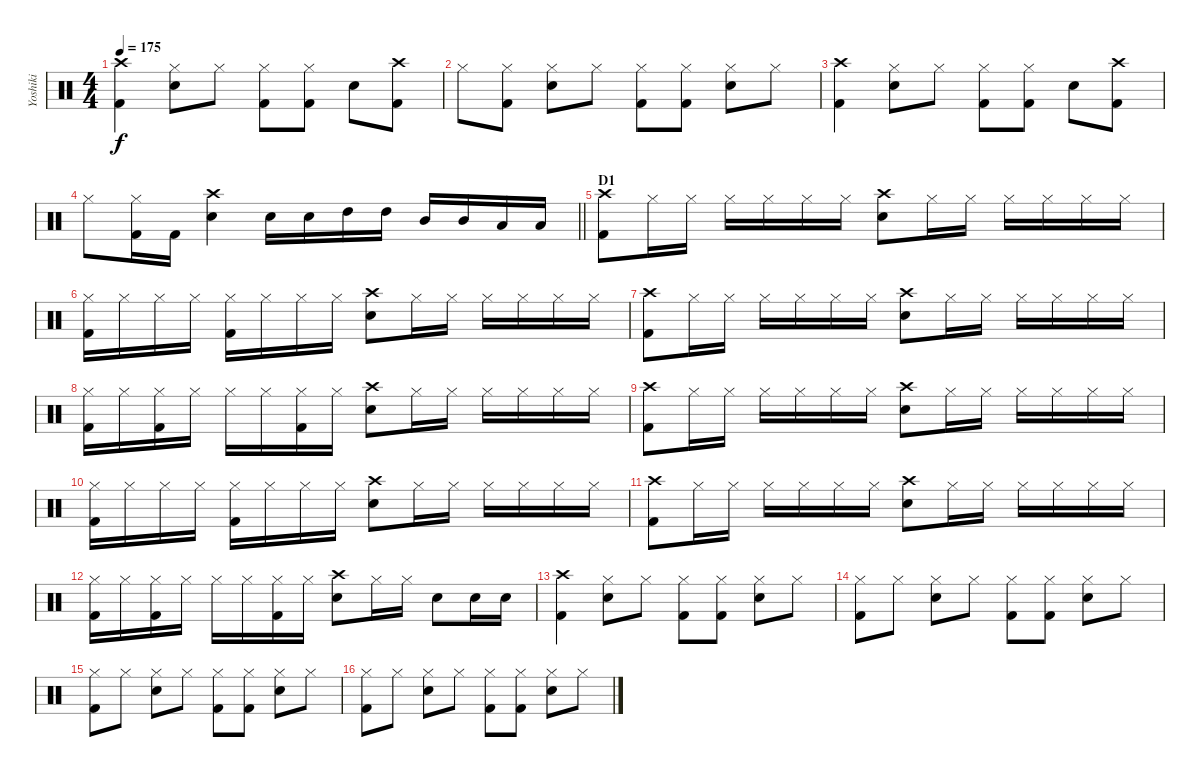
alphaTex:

\track ("Yoshiki" "Yoshiki") {instrument percussion}
\staff {score}
\articulation defaults
\ts (4 4)
\tempo 175
\clef neutral
\ks c
("Crash high (hit)" "Kick (hit) 2").4{dy f} ("Hi-Hat (closed)" "Electric Snare (hit)").8 "Hi-Hat (closed)".8 ("Hi-Hat (closed)" "Kick (hit) 2").8 ("Hi-Hat (closed)" "Kick (hit) 2").8 "Electric Snare (hit)".8 ("Crash high (hit)" "Kick (hit) 2").8 |
"Hi-Hat (closed)".8 ("Hi-Hat (closed)" "Kick (hit) 2").8 ("Hi-Hat (closed)" "Electric Snare (hit)").8 "Hi-Hat (closed)".8 ("Hi-Hat (closed)" "Kick (hit) 2").8 ("Hi-Hat (closed)" "Kick (hit) 2").8 ("Hi-Hat (closed)" "Electric Snare (hit)").8 "Hi-Hat (closed)".8 |
("Crash high (hit)" "Kick (hit) 2").4 ("Hi-Hat (closed)" "Electric Snare (hit)").8 "Hi-Hat (closed)".8 ("Hi-Hat (closed)" "Kick (hit) 2").8 ("Hi-Hat (closed)" "Kick (hit) 2").8 "Electric Snare (hit)".8 ("Crash high (hit)" "Kick (hit) 2").8 |
\barLineRight lightlight "Hi-Hat (closed)".8
("Hi-Hat (closed)" "Kick (hit) 2").16 "Kick (hit) 2".16 ("Crash high (hit)" "Electric Snare (hit)").4 "Electric Snare (hit)".16 "Electric Snare (hit)".16 "High Tom (hit)".16 "High Tom (hit)".16 "Mid Tom (hit)".16 "Mid Tom (hit)".16 "Low Tom (hit)".16 "Low Tom (hit)".16 |
\section ("" "D1")
("Crash high (hit)" "Kick (hit) 2").8 "Hi-Hat (closed)".16 "Hi-Hat (closed)".16 "Hi-Hat (closed)".16 "Hi-Hat (closed)".16 "Hi-Hat (closed)".16 "Hi-Hat (closed)".16 ("Crash high (hit)" "Electric Snare (hit)").8 "Hi-Hat (closed)".16 "Hi-Hat (closed)".16 "Hi-Hat (closed)".16 "Hi-Hat (closed)".16 "Hi-Hat (closed)".16 "Hi-Hat (closed)".16 |
("Hi-Hat (closed)" "Kick (hit) 2").16 "Hi-Hat (closed)".16 "Hi-Hat (closed)".16 "Hi-Hat (closed)".16 ("Hi-Hat (closed)" "Kick (hit) 2").16 "Hi-Hat (closed)".16 "Hi-Hat (closed)".16 "Hi-Hat (closed)".16 ("Crash high (hit)" "Electric Snare (hit)").8 "Hi-Hat (closed)".16 "Hi-Hat (closed)".16 "Hi-Hat (closed)".16 "Hi-Hat (closed)".16 "Hi-Hat (closed)".16 "Hi-Hat (closed)".16 |
("Crash high (hit)" "Kick (hit) 2").8 "Hi-Hat (closed)".16 "Hi-Hat (closed)".16 "Hi-Hat (closed)".16 "Hi-Hat (closed)".16 "Hi-Hat (closed)".16 "Hi-Hat (closed)".16 ("Crash high (hit)" "Electric Snare (hit)").8 "Hi-Hat (closed)".16 "Hi-Hat (closed)".16 "Hi-Hat (closed)".16 "Hi-Hat (closed)".16 "Hi-Hat (closed)".16 "Hi-Hat (closed)".16 |
("Hi-Hat (closed)" "Kick (hit) 2").16 "Hi-Hat (closed)".16 ("Hi-Hat (closed)" "Kick (hit) 2").16 "Hi-Hat (closed)".16 "Hi-Hat (closed)".16 "Hi-Hat (closed)".16 ("Hi-Hat (closed)" "Kick (hit) 2").16 "Hi-Hat (closed)".16 ("Crash high (hit)" "Electric Snare (hit)").8 "Hi-Hat (closed)".16 "Hi-Hat (closed)".16 "Hi-Hat (closed)".16 "Hi-Hat (closed)".16 "Hi-Hat (closed)".16 "Hi-Hat (closed)".16 |
("Crash high (hit)" "Kick (hit) 2").8 "Hi-Hat (closed)".16 "Hi-Hat (closed)".16 "Hi-Hat (closed)".16 "Hi-Hat (closed)".16 "Hi-Hat (closed)".16 "Hi-Hat (closed)".16 ("Crash high (hit)" "Electric Snare (hit)").8 "Hi-Hat (closed)".16 "Hi-Hat (closed)".16 "Hi-Hat (closed)".16 "Hi-Hat (closed)".16 "Hi-Hat (closed)".16 "Hi-Hat (closed)".16 |
("Hi-Hat (closed)" "Kick (hit) 2").16 "Hi-Hat (closed)".16 "Hi-Hat (closed)".16 "Hi-Hat (closed)".16 ("Hi-Hat (closed)" "Kick (hit) 2").16 "Hi-Hat (closed)".16 "Hi-Hat (closed)".16 "Hi-Hat (closed)".16 ("Crash high (hit)" "Electric Snare (hit)").8 "Hi-Hat (closed)".16 "Hi-Hat (closed)".16 "Hi-Hat (closed)".16 "Hi-Hat (closed)".16 "Hi-Hat (closed)".16 "Hi-Hat (closed)".16 |
("Crash high (hit)" "Kick (hit) 2").8 "Hi-Hat (closed)".16 "Hi-Hat (closed)".16 "Hi-Hat (closed)".16 "Hi-Hat (closed)".16 "Hi-Hat (closed)".16 "Hi-Hat (closed)".16 ("Crash high (hit)" "Electric Snare (hit)").8 "Hi-Hat (closed)".16 "Hi-Hat (closed)".16 "Hi-Hat (closed)".16 "Hi-Hat (closed)".16 "Hi-Hat (closed)".16 "Hi-Hat (closed)".16 |
("Hi-Hat (closed)" "Kick (hit) 2").16 "Hi-Hat (closed)".16 ("Hi-Hat (closed)" "Kick (hit) 2").16 "Hi-Hat (closed)".16 "Hi-Hat (closed)".16 "Hi-Hat (closed)".16 ("Hi-Hat (closed)" "Kick (hit) 2").16 "Hi-Hat (closed)".16 ("Crash high (hit)" "Electric Snare (hit)").8 "Hi-Hat (closed)".16 "Hi-Hat (closed)".16 "Electric Snare (hit)".8 "Electric Snare (hit)".16 "Electric Snare (hit)".16 |
("Crash high (hit)" "Kick (hit) 2").4 ("Hi-Hat (closed)" "Electric Snare (hit)").8 "Hi-Hat (closed)".8 ("Hi-Hat (closed)" "Kick (hit) 2").8 ("Hi-Hat (closed)" "Kick (hit) 2").8 ("Hi-Hat (closed)" "Electric Snare (hit)").8 "Hi-Hat (closed)".8 |
("Hi-Hat (closed)" "Kick (hit) 2").8 "Hi-Hat (closed)".8 ("Hi-Hat (closed)" "Electric Snare (hit)").8 "Hi-Hat (closed)".8 ("Hi-Hat (closed)" "Kick (hit) 2").8 ("Hi-Hat (closed)" "Kick (hit) 2").8 ("Hi-Hat (closed)" "Electric Snare (hit)").8 "Hi-Hat (closed)".8 |
("Hi-Hat (closed)" "Kick (hit) 2").8 "Hi-Hat (closed)".8 ("Hi-Hat (closed)" "Electric Snare (hit)").8 "Hi-Hat (closed)".8 ("Hi-Hat (closed)" "Kick (hit) 2").8 ("Hi-Hat (closed)" "Kick (hit) 2").8 ("Hi-Hat (closed)" "Electric Snare (hit)").8 "Hi-Hat (closed)".8 |
("Hi-Hat (closed)" "Kick (hit) 2").8 "Hi-Hat (closed)".8 ("Hi-Hat (closed)" "Electric Snare (hit)").8 "Hi-Hat (closed)".8 ("Hi-Hat (closed)" "Kick (hit) 2").8 ("Hi-Hat (closed)" "Kick (hit) 2").8 ("Hi-Hat (closed)" "Electric Snare (hit)").8 "Hi-Hat (closed)".8
